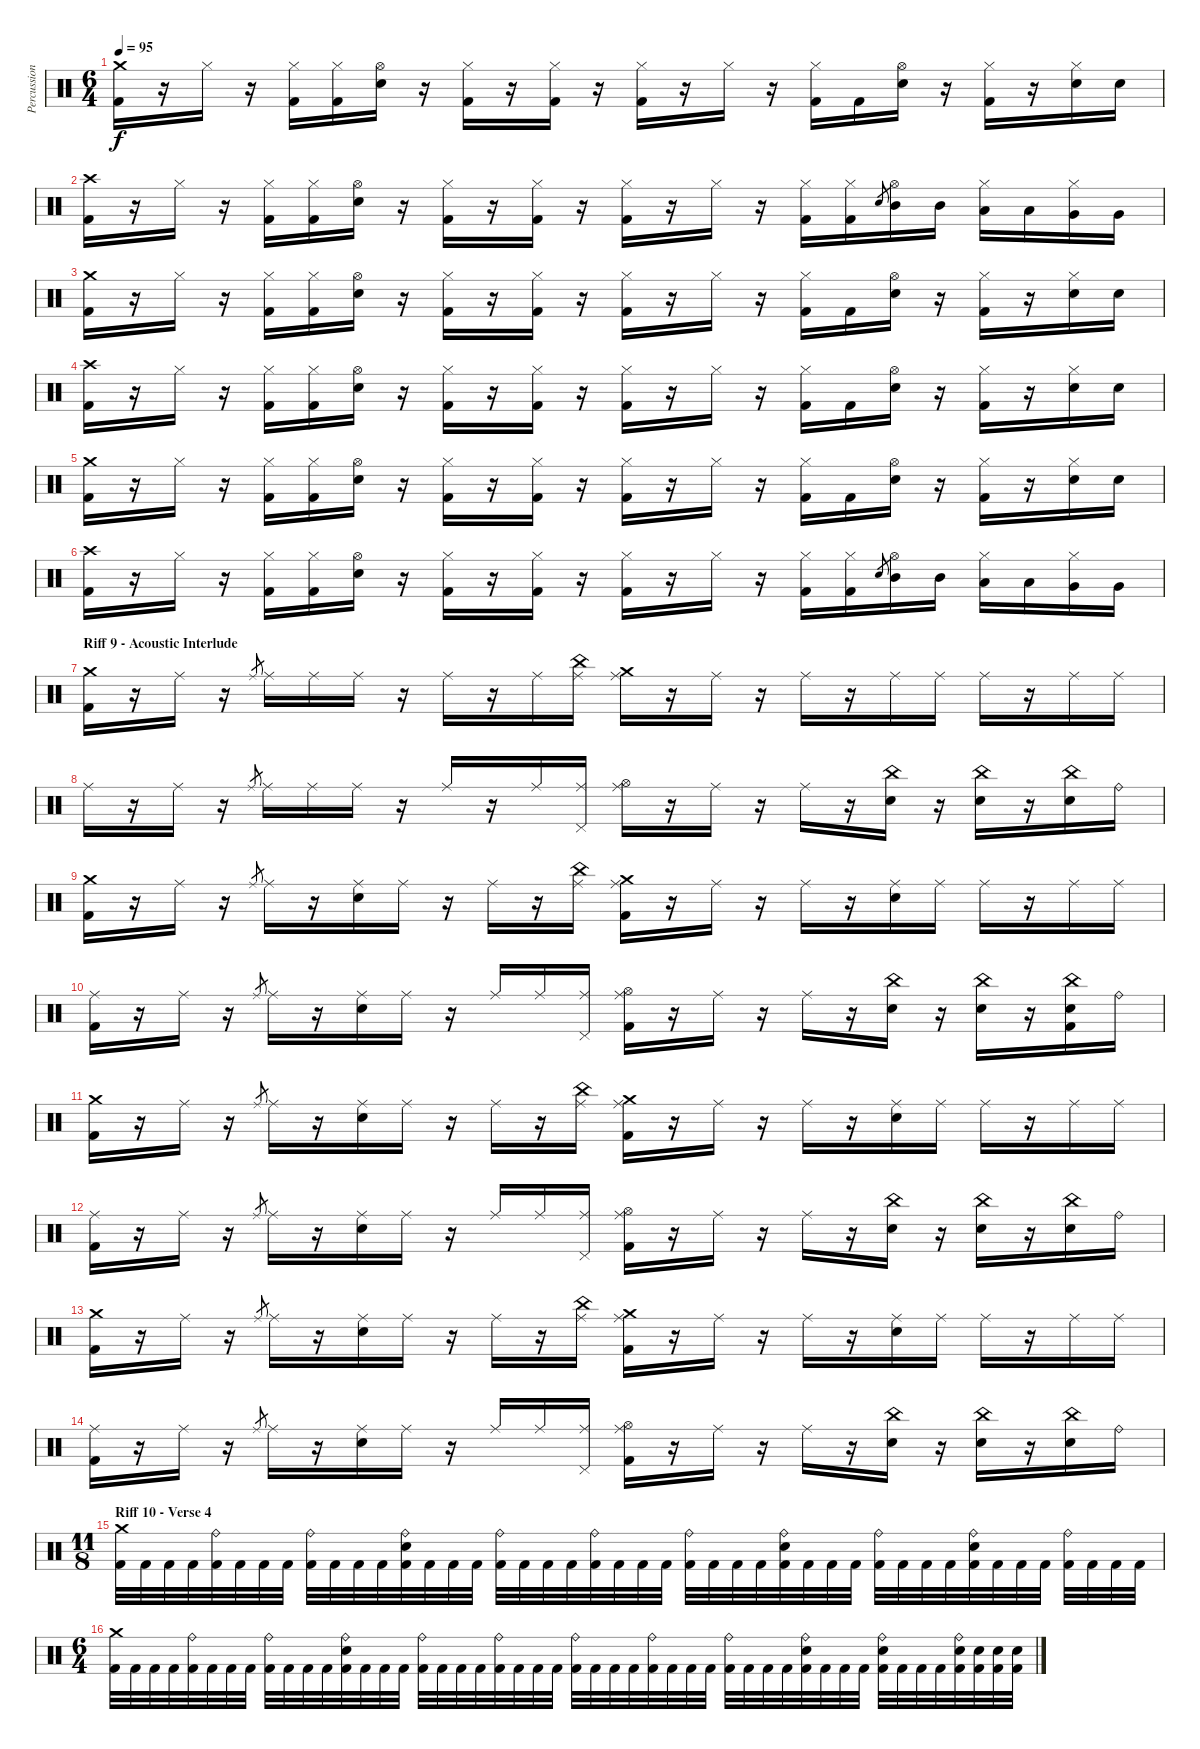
\track ("Percussion" "Percussion") {instrument percussion}
\staff {score}
\articulation defaults
\ts (6 4)
\tempo 95
\clef neutral
\ks c
("Crash medium (hit)" "Kick (hit) 2").16{dy f} r.16 "Hi-Hat (closed)".16 r.16 ("Hi-Hat (closed)" "Kick (hit) 2").16 ("Hi-Hat (closed)" "Kick (hit) 2").16 ("Hi-Hat (open)" "Electric Snare (hit)").16 r.16 ("Hi-Hat (closed)" "Kick (hit) 2").16 r.16 ("Hi-Hat (closed)" "Kick (hit) 2").16 r.16 ("Hi-Hat (closed)" "Kick (hit) 2").16 r.16 "Hi-Hat (closed)".16 r.16 ("Hi-Hat (closed)" "Kick (hit) 2").16 "Kick (hit) 2".16 ("Hi-Hat (open)" "Electric Snare (hit)").16 r.16 ("Hi-Hat (closed)" "Kick (hit) 2").16 r.16 ("Hi-Hat (closed)" "Electric Snare (hit)").16 "Electric Snare (hit)".16 |
("Crash high (hit)" "Kick (hit) 2").16 r.16 "Hi-Hat (closed)".16 r.16 ("Hi-Hat (closed)" "Kick (hit) 2").16 ("Hi-Hat (closed)" "Kick (hit) 2").16 ("Hi-Hat (open)" "Electric Snare (hit)").16 r.16 ("Hi-Hat (closed)" "Kick (hit) 2").16 r.16 ("Hi-Hat (closed)" "Kick (hit) 2").16 r.16 ("Hi-Hat (closed)" "Kick (hit) 2").16 r.16 "Hi-Hat (closed)".16 r.16 ("Hi-Hat (closed)" "Kick (hit) 2").16 ("Hi-Hat (closed)" "Kick (hit) 2").16 "Electric Snare (hit)".8{gr} ("Hi-Hat (open)" "Mid Tom (hit)").16 "Mid Tom (hit)".16 ("Hi-Hat (closed)" "Low Tom (hit)").16 "Low Tom (hit)".16 ("Hi-Hat (closed)" "Very Low Tom (hit)").16 "Very Low Tom (hit)".16 |
("Crash medium (hit)" "Kick (hit) 2").16 r.16 "Hi-Hat (closed)".16 r.16 ("Hi-Hat (closed)" "Kick (hit) 2").16 ("Hi-Hat (closed)" "Kick (hit) 2").16 ("Hi-Hat (open)" "Electric Snare (hit)").16 r.16 ("Hi-Hat (closed)" "Kick (hit) 2").16 r.16 ("Hi-Hat (closed)" "Kick (hit) 2").16 r.16 ("Hi-Hat (closed)" "Kick (hit) 2").16 r.16 "Hi-Hat (closed)".16 r.16 ("Hi-Hat (closed)" "Kick (hit) 2").16 "Kick (hit) 2".16 ("Hi-Hat (open)" "Electric Snare (hit)").16 r.16 ("Hi-Hat (closed)" "Kick (hit) 2").16 r.16 ("Hi-Hat (closed)" "Electric Snare (hit)").16 "Electric Snare (hit)".16 |
("Crash high (hit)" "Kick (hit) 2").16 r.16 "Hi-Hat (closed)".16 r.16 ("Hi-Hat (closed)" "Kick (hit) 2").16 ("Hi-Hat (closed)" "Kick (hit) 2").16 ("Hi-Hat (open)" "Electric Snare (hit)").16 r.16 ("Hi-Hat (closed)" "Kick (hit) 2").16 r.16 ("Hi-Hat (closed)" "Kick (hit) 2").16 r.16 ("Hi-Hat (closed)" "Kick (hit) 2").16 r.16 "Hi-Hat (closed)".16 r.16 ("Hi-Hat (closed)" "Kick (hit) 2").16 "Kick (hit) 2".16 ("Hi-Hat (open)" "Electric Snare (hit)").16 r.16 ("Hi-Hat (closed)" "Kick (hit) 2").16 r.16 ("Hi-Hat (closed)" "Electric Snare (hit)").16 "Electric Snare (hit)".16 |
("Crash medium (hit)" "Kick (hit) 2").16 r.16 "Hi-Hat (closed)".16 r.16 ("Hi-Hat (closed)" "Kick (hit) 2").16 ("Hi-Hat (closed)" "Kick (hit) 2").16 ("Hi-Hat (open)" "Electric Snare (hit)").16 r.16 ("Hi-Hat (closed)" "Kick (hit) 2").16 r.16 ("Hi-Hat (closed)" "Kick (hit) 2").16 r.16 ("Hi-Hat (closed)" "Kick (hit) 2").16 r.16 "Hi-Hat (closed)".16 r.16 ("Hi-Hat (closed)" "Kick (hit) 2").16 "Kick (hit) 2".16 ("Hi-Hat (open)" "Electric Snare (hit)").16 r.16 ("Hi-Hat (closed)" "Kick (hit) 2").16 r.16 ("Hi-Hat (closed)" "Electric Snare (hit)").16 "Electric Snare (hit)".16 |
("Crash high (hit)" "Kick (hit) 2").16 r.16 "Hi-Hat (closed)".16 r.16 ("Hi-Hat (closed)" "Kick (hit) 2").16 ("Hi-Hat (closed)" "Kick (hit) 2").16 ("Hi-Hat (open)" "Electric Snare (hit)").16 r.16 ("Hi-Hat (closed)" "Kick (hit) 2").16 r.16 ("Hi-Hat (closed)" "Kick (hit) 2").16 r.16 ("Hi-Hat (closed)" "Kick (hit) 2").16 r.16 "Hi-Hat (closed)".16 r.16 ("Hi-Hat (closed)" "Kick (hit) 2").16 ("Hi-Hat (closed)" "Kick (hit) 2").16 "Electric Snare (hit)".8{gr} ("Hi-Hat (open)" "Mid Tom (hit)").16 "Mid Tom (hit)".16 ("Hi-Hat (closed)" "Low Tom (hit)").16 "Low Tom (hit)".16 ("Hi-Hat (closed)" "Very Low Tom (hit)").16 "Very Low Tom (hit)".16 |
\section ("" "Riff 9 - Acoustic Interlude")
("Crash medium (hit)" "Kick (hit) 2").16 r.16 "Ride (middle)".16 r.16 "Ride (middle)".8{gr} "Ride (middle)".16 "Ride (middle)".16 "Ride (middle)".16 r.16 "Ride (middle)".16 r.16 "Ride (middle)".16 ("Ride (middle)" "China (hit)").16 ("Ride (middle)" "Crash medium (hit)").16 r.16 "Ride (middle)".16 r.16 "Ride (middle)".16 r.16 "Ride (middle)".16 "Ride (middle)".16 "Ride (middle)".16 r.16 "Ride (middle)".16 "Ride (middle)".16 |
"Ride (middle)".16 r.16 "Ride (middle)".16 r.16 "Ride (middle)".8{gr} "Ride (middle)".16 "Ride (middle)".16 "Ride (middle)".16 r.16 "Ride (middle)".16 r.16 "Ride (middle)".16 ("Ride (middle)" "Pedal Hi-Hat (hit)").16 ("Ride (middle)" "Hi-Hat (open)").16 r.16 "Ride (middle)".16 r.16 "Ride (middle)".16 r.16 ("China (hit)" "Electric Snare (hit)").16 r.16 ("China (hit)" "Electric Snare (hit)").16 r.16 ("China (hit)" "Electric Snare (hit)").16 "Ride (bell)".16 |
("Crash medium (hit)" "Kick (hit) 2").16 r.16 "Ride (middle)".16 r.16 "Ride (middle)".8{gr} "Ride (middle)".16 r.16 ("Ride (middle)" "Electric Snare (hit)").16 "Ride (middle)".16 r.16 "Ride (middle)".16 r.16 ("Ride (middle)" "China (hit)").16 ("Ride (middle)" "Crash medium (hit)" "Kick (hit) 2").16 r.16 "Ride (middle)".16 r.16 "Ride (middle)".16 r.16 ("Ride (middle)" "Electric Snare (hit)").16 "Ride (middle)".16 "Ride (middle)".16 r.16 "Ride (middle)".16 "Ride (middle)".16 |
("Ride (middle)" "Kick (hit) 2").16 r.16 "Ride (middle)".16 r.16 "Ride (middle)".8{gr} "Ride (middle)".16 r.16 ("Ride (middle)" "Electric Snare (hit)").16 "Ride (middle)".16 r.16 "Ride (middle)".16 "Ride (middle)".16 ("Ride (middle)" "Pedal Hi-Hat (hit)").16 ("Ride (middle)" "Hi-Hat (open)" "Kick (hit) 2").16 r.16 "Ride (middle)".16 r.16 "Ride (middle)".16 r.16 ("China (hit)" "Electric Snare (hit)").16 r.16 ("China (hit)" "Electric Snare (hit)").16 r.16 ("China (hit)" "Electric Snare (hit)" "Kick (hit) 2").16 "Ride (bell)".16 |
("Crash medium (hit)" "Kick (hit) 2").16 r.16 "Ride (middle)".16 r.16 "Ride (middle)".8{gr} "Ride (middle)".16 r.16 ("Ride (middle)" "Electric Snare (hit)").16 "Ride (middle)".16 r.16 "Ride (middle)".16 r.16 ("Ride (middle)" "China (hit)").16 ("Ride (middle)" "Crash medium (hit)" "Kick (hit) 2").16 r.16 "Ride (middle)".16 r.16 "Ride (middle)".16 r.16 ("Ride (middle)" "Electric Snare (hit)").16 "Ride (middle)".16 "Ride (middle)".16 r.16 "Ride (middle)".16 "Ride (middle)".16 |
("Ride (middle)" "Kick (hit) 2").16 r.16 "Ride (middle)".16 r.16 "Ride (middle)".8{gr} "Ride (middle)".16 r.16 ("Ride (middle)" "Electric Snare (hit)").16 "Ride (middle)".16 r.16 "Ride (middle)".16 "Ride (middle)".16 ("Ride (middle)" "Pedal Hi-Hat (hit)").16 ("Ride (middle)" "Hi-Hat (open)" "Kick (hit) 2").16 r.16 "Ride (middle)".16 r.16 "Ride (middle)".16 r.16 ("China (hit)" "Electric Snare (hit)").16 r.16 ("China (hit)" "Electric Snare (hit)").16 r.16 ("China (hit)" "Electric Snare (hit)").16 "Ride (bell)".16 |
("Crash medium (hit)" "Kick (hit) 2").16 r.16 "Ride (middle)".16 r.16 "Ride (middle)".8{gr} "Ride (middle)".16 r.16 ("Ride (middle)" "Electric Snare (hit)").16 "Ride (middle)".16 r.16 "Ride (middle)".16 r.16 ("Ride (middle)" "China (hit)").16 ("Ride (middle)" "Crash medium (hit)" "Kick (hit) 2").16 r.16 "Ride (middle)".16 r.16 "Ride (middle)".16 r.16 ("Ride (middle)" "Electric Snare (hit)").16 "Ride (middle)".16 "Ride (middle)".16 r.16 "Ride (middle)".16 "Ride (middle)".16 |
("Ride (middle)" "Kick (hit) 2").16 r.16 "Ride (middle)".16 r.16 "Ride (middle)".8{gr} "Ride (middle)".16 r.16 ("Ride (middle)" "Electric Snare (hit)").16 "Ride (middle)".16 r.16 "Ride (middle)".16 "Ride (middle)".16 ("Ride (middle)" "Pedal Hi-Hat (hit)").16 ("Ride (middle)" "Hi-Hat (open)" "Kick (hit) 2").16 r.16 "Ride (middle)".16 r.16 "Ride (middle)".16 r.16 ("China (hit)" "Electric Snare (hit)").16 r.16 ("China (hit)" "Electric Snare (hit)").16 r.16 ("China (hit)" "Electric Snare (hit)").16 "Ride (bell)".16 |
\ts (11 8)
\section ("" "Riff 10 - Verse 4")
("Crash medium (hit)" "Kick (hit) 2").32 "Kick (hit) 2".32 "Kick (hit) 2".32 "Kick (hit) 2".32 ("Ride (bell)" "Kick (hit) 2").32 "Kick (hit) 2".32 "Kick (hit) 2".32 "Kick (hit) 2".32 ("Ride (bell)" "Kick (hit) 2").32 "Kick (hit) 2".32 "Kick (hit) 2".32 "Kick (hit) 2".32 ("Ride (bell)" "Electric Snare (hit)" "Kick (hit) 2").32 "Kick (hit) 2".32 "Kick (hit) 2".32 "Kick (hit) 2".32 ("Ride (bell)" "Kick (hit) 2").32 "Kick (hit) 2".32 "Kick (hit) 2".32 "Kick (hit) 2".32 ("Ride (bell)" "Kick (hit) 2").32 "Kick (hit) 2".32 "Kick (hit) 2".32 "Kick (hit) 2".32 ("Ride (bell)" "Kick (hit) 2").32 "Kick (hit) 2".32 "Kick (hit) 2".32 "Kick (hit) 2".32 ("Ride (bell)" "Electric Snare (hit)" "Kick (hit) 2").32 "Kick (hit) 2".32 "Kick (hit) 2".32 "Kick (hit) 2".32 ("Ride (bell)" "Kick (hit) 2").32 "Kick (hit) 2".32 "Kick (hit) 2".32 "Kick (hit) 2".32 ("Ride (bell)" "Electric Snare (hit)" "Kick (hit) 2").32 "Kick (hit) 2".32 "Kick (hit) 2".32 "Kick (hit) 2".32 ("Ride (bell)" "Kick (hit) 2").32 "Kick (hit) 2".32 "Kick (hit) 2".32 "Kick (hit) 2".32 |
\ts (6 4)
("Crash medium (hit)" "Kick (hit) 2").32 "Kick (hit) 2".32 "Kick (hit) 2".32 "Kick (hit) 2".32 ("Ride (bell)" "Kick (hit) 2").32 "Kick (hit) 2".32 "Kick (hit) 2".32 "Kick (hit) 2".32 ("Ride (bell)" "Kick (hit) 2").32 "Kick (hit) 2".32 "Kick (hit) 2".32 "Kick (hit) 2".32 ("Ride (bell)" "Electric Snare (hit)" "Kick (hit) 2").32 "Kick (hit) 2".32 "Kick (hit) 2".32 "Kick (hit) 2".32 ("Ride (bell)" "Kick (hit) 2").32 "Kick (hit) 2".32 "Kick (hit) 2".32 "Kick (hit) 2".32 ("Ride (bell)" "Kick (hit) 2").32 "Kick (hit) 2".32 "Kick (hit) 2".32 "Kick (hit) 2".32 ("Ride (bell)" "Kick (hit) 2").32 "Kick (hit) 2".32 "Kick (hit) 2".32 "Kick (hit) 2".32 ("Ride (bell)" "Kick (hit) 2").32 "Kick (hit) 2".32 "Kick (hit) 2".32 "Kick (hit) 2".32 ("Ride (bell)" "Kick (hit) 2").32 "Kick (hit) 2".32 "Kick (hit) 2".32 "Kick (hit) 2".32 ("Ride (bell)" "Electric Snare (hit)" "Kick (hit) 2").32 "Kick (hit) 2".32 "Kick (hit) 2".32 "Kick (hit) 2".32 ("Ride (bell)" "Electric Snare (hit)" "Kick (hit) 2").32 "Kick (hit) 2".32 "Kick (hit) 2".32 "Kick (hit) 2".32 ("Ride (bell)" "Electric Snare (hit)" "Kick (hit) 2").32 ("Electric Snare (hit)" "Kick (hit) 2").32 ("Electric Snare (hit)" "Kick (hit) 2").32 ("Electric Snare (hit)" "Kick (hit) 2").32
